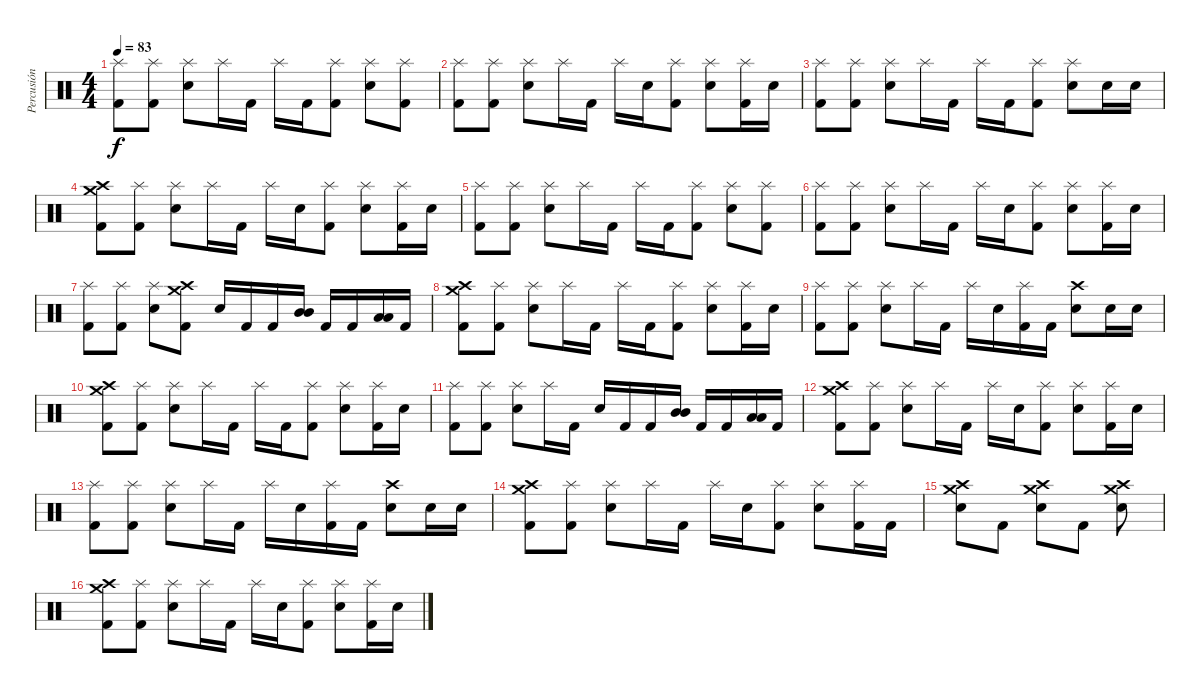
\track ("Percusión" "Percusión") {instrument percussion}
\staff {score}
\articulation defaults
\ts (4 4)
\tempo 83
\clef neutral
\ks c
("Splash (hit)" "Kick (hit) 2").8{dy f} ("Splash (hit)" "Kick (hit) 2").8 ("Splash (hit)" "Electric Snare (hit)").8 "Splash (hit)".16 "Kick (hit) 2".16 "Splash (hit)".16 "Kick (hit) 2".16 ("Splash (hit)" "Kick (hit) 2").8 ("Splash (hit)" "Electric Snare (hit)").8 ("Splash (hit)" "Kick (hit) 2").8 |
("Splash (hit)" "Kick (hit) 2").8 ("Splash (hit)" "Kick (hit) 2").8 ("Splash (hit)" "Electric Snare (hit)").8 "Splash (hit)".16 "Kick (hit) 2".16 "Splash (hit)".16 "Electric Snare (hit)".16 ("Splash (hit)" "Kick (hit) 2").8 ("Splash (hit)" "Electric Snare (hit)").8 ("Splash (hit)" "Kick (hit) 2").16 "Electric Snare (hit)".16 |
("Splash (hit)" "Kick (hit) 2").8 ("Splash (hit)" "Kick (hit) 2").8 ("Splash (hit)" "Electric Snare (hit)").8 "Splash (hit)".16 "Kick (hit) 2".16 "Splash (hit)".16 "Kick (hit) 2".16 ("Splash (hit)" "Kick (hit) 2").8 ("Splash (hit)" "Electric Snare (hit)").8 "Electric Snare (hit)".16 "Electric Snare (hit)".16 |
("Crash medium (hit)" "Crash high (hit)" "Kick (hit) 2").8 ("Splash (hit)" "Kick (hit) 2").8 ("Splash (hit)" "Electric Snare (hit)").8 "Splash (hit)".16 "Kick (hit) 2".16 "Splash (hit)".16 "Electric Snare (hit)".16 ("Splash (hit)" "Kick (hit) 2").8 ("Splash (hit)" "Electric Snare (hit)").8 ("Splash (hit)" "Kick (hit) 2").16 "Electric Snare (hit)".16 |
("Splash (hit)" "Kick (hit) 2").8 ("Splash (hit)" "Kick (hit) 2").8 ("Splash (hit)" "Electric Snare (hit)").8 "Splash (hit)".16 "Kick (hit) 2".16 "Splash (hit)".16 "Kick (hit) 2".16 ("Splash (hit)" "Kick (hit) 2").8 ("Splash (hit)" "Electric Snare (hit)").8 ("Splash (hit)" "Kick (hit) 2").8 |
("Splash (hit)" "Kick (hit) 2").8 ("Splash (hit)" "Kick (hit) 2").8 ("Splash (hit)" "Electric Snare (hit)").8 "Splash (hit)".16 "Kick (hit) 2".16 "Splash (hit)".16 "Electric Snare (hit)".16 ("Splash (hit)" "Kick (hit) 2").8 ("Splash (hit)" "Electric Snare (hit)").8 ("Splash (hit)" "Kick (hit) 2").16 "Electric Snare (hit)".16 |
("Splash (hit)" "Kick (hit) 2").8 ("Splash (hit)" "Kick (hit) 2").8 ("Splash (hit)" "Electric Snare (hit)").8 ("Crash medium (hit)" "Crash high (hit)" "Kick (hit) 2").8 "Electric Snare (hit)".16 "Kick (hit) 2".16 "Kick (hit) 2".16 ("Mid Tom (hit)" "Mid Tom (hit)").16 "Kick (hit) 2".16 "Kick (hit) 2".16 ("Low Tom (hit)" "Low Tom (hit)").16 "Kick (hit) 2".16 |
("Crash medium (hit)" "Crash high (hit)" "Kick (hit) 2").8 ("Splash (hit)" "Kick (hit) 2").8 ("Splash (hit)" "Electric Snare (hit)").8 "Splash (hit)".16 "Kick (hit) 2".16 "Splash (hit)".16 "Kick (hit) 2".16 ("Splash (hit)" "Kick (hit) 2").8 ("Splash (hit)" "Electric Snare (hit)").8 ("Splash (hit)" "Kick (hit) 2").16 "Electric Snare (hit)".16 |
("Splash (hit)" "Kick (hit) 2").8 ("Splash (hit)" "Kick (hit) 2").8 ("Splash (hit)" "Electric Snare (hit)").8 "Splash (hit)".16 "Kick (hit) 2".16 "Splash (hit)".16 "Electric Snare (hit)".16 ("Splash (hit)" "Kick (hit) 2").16 "Kick (hit) 2".16 ("Crash high (hit)" "Electric Snare (hit)").8 "Electric Snare (hit)".16 "Electric Snare (hit)".16 |
("Crash medium (hit)" "Crash high (hit)" "Kick (hit) 2").8 ("Splash (hit)" "Kick (hit) 2").8 ("Splash (hit)" "Electric Snare (hit)").8 "Splash (hit)".16 "Kick (hit) 2".16 "Splash (hit)".16 "Kick (hit) 2".16 ("Splash (hit)" "Kick (hit) 2").8 ("Splash (hit)" "Electric Snare (hit)").8 ("Splash (hit)" "Kick (hit) 2").16 "Electric Snare (hit)".16 |
("Splash (hit)" "Kick (hit) 2").8 ("Splash (hit)" "Kick (hit) 2").8 ("Splash (hit)" "Electric Snare (hit)").8 "Splash (hit)".16 "Kick (hit) 2".16 "Electric Snare (hit)".16 "Kick (hit) 2".16 "Kick (hit) 2".16 ("Mid Tom (hit)" "Mid Tom (hit)").16 "Kick (hit) 2".16 "Kick (hit) 2".16 ("Low Tom (hit)" "Low Tom (hit)").16 "Kick (hit) 2".16 |
("Crash medium (hit)" "Crash high (hit)" "Kick (hit) 2").8 ("Splash (hit)" "Kick (hit) 2").8 ("Splash (hit)" "Electric Snare (hit)").8 "Splash (hit)".16 "Kick (hit) 2".16 "Splash (hit)".16 "Electric Snare (hit)".16 ("Splash (hit)" "Kick (hit) 2").8 ("Splash (hit)" "Electric Snare (hit)").8 ("Splash (hit)" "Kick (hit) 2").16 "Electric Snare (hit)".16 |
("Splash (hit)" "Kick (hit) 2").8 ("Splash (hit)" "Kick (hit) 2").8 ("Splash (hit)" "Electric Snare (hit)").8 "Splash (hit)".16 "Kick (hit) 2".16 "Splash (hit)".16 "Electric Snare (hit)".16 ("Splash (hit)" "Kick (hit) 2").16 "Kick (hit) 2".16 ("Crash high (hit)" "Electric Snare (hit)").8 "Electric Snare (hit)".16 "Electric Snare (hit)".16 |
("Crash medium (hit)" "Crash high (hit)" "Kick (hit) 2").8 ("Splash (hit)" "Kick (hit) 2").8 ("Splash (hit)" "Electric Snare (hit)").8 "Splash (hit)".16 "Kick (hit) 2".16 "Splash (hit)".16 "Electric Snare (hit)".16 ("Splash (hit)" "Kick (hit) 2").8 ("Splash (hit)" "Electric Snare (hit)").8 ("Splash (hit)" "Kick (hit) 2").16 "Kick (hit) 2".16 |
("Crash medium (hit)" "Crash high (hit)" "Electric Snare (hit)").8 "Kick (hit) 2".8 ("Crash medium (hit)" "Crash high (hit)" "Electric Snare (hit)").8 "Kick (hit) 2".8 ("Crash medium (hit)" "Crash high (hit)" "Electric Snare (hit)").8 |
("Crash medium (hit)" "Crash high (hit)" "Kick (hit) 2").8 ("Splash (hit)" "Kick (hit) 2").8 ("Splash (hit)" "Electric Snare (hit)").8 "Splash (hit)".16 "Kick (hit) 2".16 "Splash (hit)".16 "Electric Snare (hit)".16 ("Splash (hit)" "Kick (hit) 2").8 ("Splash (hit)" "Electric Snare (hit)").8 ("Splash (hit)" "Kick (hit) 2").16 "Electric Snare (hit)".16
